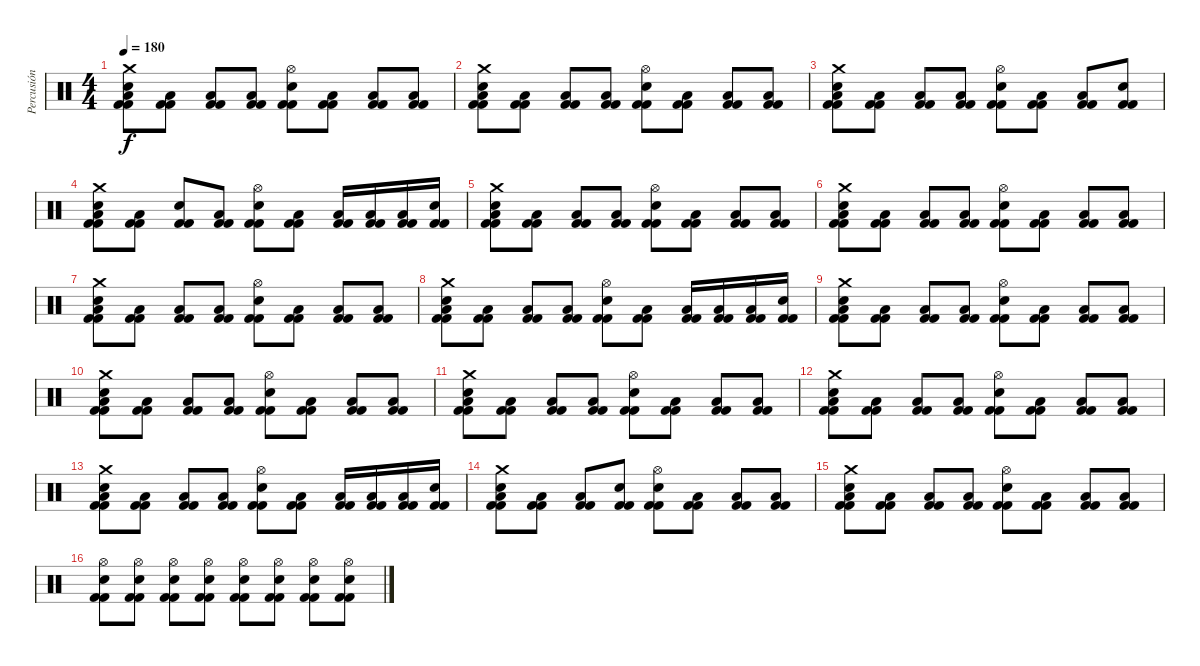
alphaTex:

\track ("Percusión" "Percusión") {instrument percussion}
\staff {score}
\articulation defaults
\ts (4 4)
\tempo 180
\clef neutral
\ks c
("Crash medium (hit)" "Kick (hit) 2" "Kick (hit) 2" "Snare (hit) 2" "Low Floor Tom (hit)").8{dy f} ("Kick (hit) 2" "Kick (hit) 2" "Low Floor Tom (hit)").8 ("Kick (hit) 2" "Kick (hit) 2" "Low Floor Tom (hit)").8 ("Kick (hit) 2" "Kick (hit) 2" "Low Floor Tom (hit)").8 ("Hi-Hat (open)" "Kick (hit) 2" "Kick (hit) 2" "Snare (hit) 2").8 ("Kick (hit) 2" "Kick (hit) 2" "Low Floor Tom (hit)").8 ("Kick (hit) 2" "Kick (hit) 2" "Low Floor Tom (hit)").8 ("Kick (hit) 2" "Kick (hit) 2" "Low Floor Tom (hit)").8 |
("Crash medium (hit)" "Kick (hit) 2" "Kick (hit) 2" "Snare (hit) 2" "Low Floor Tom (hit)").8 ("Kick (hit) 2" "Kick (hit) 2" "Low Floor Tom (hit)").8 ("Kick (hit) 2" "Kick (hit) 2" "Low Floor Tom (hit)").8 ("Kick (hit) 2" "Kick (hit) 2" "Low Floor Tom (hit)").8 ("Hi-Hat (open)" "Kick (hit) 2" "Kick (hit) 2" "Snare (hit) 2").8 ("Kick (hit) 2" "Kick (hit) 2" "Low Floor Tom (hit)").8 ("Kick (hit) 2" "Kick (hit) 2" "Low Floor Tom (hit)").8 ("Kick (hit) 2" "Kick (hit) 2" "Low Floor Tom (hit)").8 |
("Crash medium (hit)" "Kick (hit) 2" "Kick (hit) 2" "Snare (hit) 2" "Low Floor Tom (hit)").8 ("Kick (hit) 2" "Kick (hit) 2" "Low Floor Tom (hit)").8 ("Kick (hit) 2" "Kick (hit) 2" "Low Floor Tom (hit)").8 ("Kick (hit) 2" "Kick (hit) 2" "Low Floor Tom (hit)").8 ("Hi-Hat (open)" "Kick (hit) 2" "Kick (hit) 2" "Snare (hit) 2").8 ("Kick (hit) 2" "Kick (hit) 2" "Low Floor Tom (hit)").8 ("Kick (hit) 2" "Kick (hit) 2" "Low Floor Tom (hit)").8 ("Kick (hit) 2" "Kick (hit) 2" "Snare (hit)").8 |
("Crash medium (hit)" "Kick (hit) 2" "Kick (hit) 2" "Snare (hit) 2" "Low Floor Tom (hit)").8 ("Kick (hit) 2" "Kick (hit) 2" "Low Floor Tom (hit)").8 ("Kick (hit) 2" "Kick (hit) 2" "Snare (hit)").8 ("Kick (hit) 2" "Kick (hit) 2" "Low Floor Tom (hit)").8 ("Hi-Hat (open)" "Kick (hit) 2" "Kick (hit) 2" "Snare (hit) 2").8 ("Kick (hit) 2" "Kick (hit) 2" "Low Floor Tom (hit)").8 ("Kick (hit) 2" "Kick (hit) 2" "Low Floor Tom (hit)").16 ("Kick (hit) 2" "Kick (hit) 2" "Low Floor Tom (hit)").16 ("Kick (hit) 2" "Kick (hit) 2" "Low Floor Tom (hit)").16 ("Kick (hit) 2" "Kick (hit) 2" "Snare (hit)").16 |
("Crash medium (hit)" "Kick (hit) 2" "Kick (hit) 2" "Snare (hit) 2" "Low Floor Tom (hit)").8 ("Kick (hit) 2" "Kick (hit) 2" "Low Floor Tom (hit)").8 ("Kick (hit) 2" "Kick (hit) 2" "Low Floor Tom (hit)").8 ("Kick (hit) 2" "Kick (hit) 2" "Low Floor Tom (hit)").8 ("Hi-Hat (open)" "Kick (hit) 2" "Kick (hit) 2" "Snare (hit) 2").8 ("Kick (hit) 2" "Kick (hit) 2" "Low Floor Tom (hit)").8 ("Kick (hit) 2" "Kick (hit) 2" "Low Floor Tom (hit)").8 ("Kick (hit) 2" "Kick (hit) 2" "Low Floor Tom (hit)").8 |
("Crash medium (hit)" "Kick (hit) 2" "Kick (hit) 2" "Snare (hit) 2" "Low Floor Tom (hit)").8 ("Kick (hit) 2" "Kick (hit) 2" "Low Floor Tom (hit)").8 ("Kick (hit) 2" "Kick (hit) 2" "Low Floor Tom (hit)").8 ("Kick (hit) 2" "Kick (hit) 2" "Low Floor Tom (hit)").8 ("Hi-Hat (open)" "Kick (hit) 2" "Kick (hit) 2" "Snare (hit) 2").8 ("Kick (hit) 2" "Kick (hit) 2" "Low Floor Tom (hit)").8 ("Kick (hit) 2" "Kick (hit) 2" "Low Floor Tom (hit)").8 ("Kick (hit) 2" "Kick (hit) 2" "Low Floor Tom (hit)").8 |
("Crash medium (hit)" "Kick (hit) 2" "Kick (hit) 2" "Snare (hit) 2" "Low Floor Tom (hit)").8 ("Kick (hit) 2" "Kick (hit) 2" "Low Floor Tom (hit)").8 ("Kick (hit) 2" "Kick (hit) 2" "Low Floor Tom (hit)").8 ("Kick (hit) 2" "Kick (hit) 2" "Low Floor Tom (hit)").8 ("Hi-Hat (open)" "Kick (hit) 2" "Kick (hit) 2" "Snare (hit) 2").8 ("Kick (hit) 2" "Kick (hit) 2" "Low Floor Tom (hit)").8 ("Kick (hit) 2" "Kick (hit) 2" "Low Floor Tom (hit)").8 ("Kick (hit) 2" "Kick (hit) 2" "Low Floor Tom (hit)").8 |
("Crash medium (hit)" "Kick (hit) 2" "Kick (hit) 2" "Snare (hit) 2" "Low Floor Tom (hit)").8 ("Kick (hit) 2" "Kick (hit) 2" "Low Floor Tom (hit)").8 ("Kick (hit) 2" "Kick (hit) 2" "Low Floor Tom (hit)").8 ("Kick (hit) 2" "Kick (hit) 2" "Low Floor Tom (hit)").8 ("Hi-Hat (open)" "Kick (hit) 2" "Kick (hit) 2" "Snare (hit) 2").8 ("Kick (hit) 2" "Kick (hit) 2" "Low Floor Tom (hit)").8 ("Kick (hit) 2" "Kick (hit) 2" "Low Floor Tom (hit)").16 ("Kick (hit) 2" "Kick (hit) 2" "Low Floor Tom (hit)").16 ("Kick (hit) 2" "Kick (hit) 2" "Low Floor Tom (hit)").16 ("Kick (hit) 2" "Kick (hit) 2" "Snare (hit)").16 |
("Crash medium (hit)" "Kick (hit) 2" "Kick (hit) 2" "Snare (hit) 2" "Low Floor Tom (hit)").8 ("Kick (hit) 2" "Kick (hit) 2" "Low Floor Tom (hit)").8 ("Kick (hit) 2" "Kick (hit) 2" "Low Floor Tom (hit)").8 ("Kick (hit) 2" "Kick (hit) 2" "Low Floor Tom (hit)").8 ("Hi-Hat (open)" "Kick (hit) 2" "Kick (hit) 2" "Snare (hit) 2").8 ("Kick (hit) 2" "Kick (hit) 2" "Low Floor Tom (hit)").8 ("Kick (hit) 2" "Kick (hit) 2" "Low Floor Tom (hit)").8 ("Kick (hit) 2" "Kick (hit) 2" "Low Floor Tom (hit)").8 |
("Crash medium (hit)" "Kick (hit) 2" "Kick (hit) 2" "Snare (hit) 2" "Low Floor Tom (hit)").8 ("Kick (hit) 2" "Kick (hit) 2" "Low Floor Tom (hit)").8 ("Kick (hit) 2" "Kick (hit) 2" "Low Floor Tom (hit)").8 ("Kick (hit) 2" "Kick (hit) 2" "Low Floor Tom (hit)").8 ("Hi-Hat (open)" "Kick (hit) 2" "Kick (hit) 2" "Snare (hit) 2").8 ("Kick (hit) 2" "Kick (hit) 2" "Low Floor Tom (hit)").8 ("Kick (hit) 2" "Kick (hit) 2" "Low Floor Tom (hit)").8 ("Kick (hit) 2" "Kick (hit) 2" "Low Floor Tom (hit)").8 |
("Crash medium (hit)" "Kick (hit) 2" "Kick (hit) 2" "Snare (hit) 2" "Low Floor Tom (hit)").8 ("Kick (hit) 2" "Kick (hit) 2" "Low Floor Tom (hit)").8 ("Kick (hit) 2" "Kick (hit) 2" "Low Floor Tom (hit)").8 ("Kick (hit) 2" "Kick (hit) 2" "Low Floor Tom (hit)").8 ("Hi-Hat (open)" "Kick (hit) 2" "Kick (hit) 2" "Snare (hit) 2").8 ("Kick (hit) 2" "Kick (hit) 2" "Low Floor Tom (hit)").8 ("Kick (hit) 2" "Kick (hit) 2" "Low Floor Tom (hit)").8 ("Kick (hit) 2" "Kick (hit) 2" "Low Floor Tom (hit)").8 |
("Crash medium (hit)" "Kick (hit) 2" "Kick (hit) 2" "Snare (hit) 2" "Low Floor Tom (hit)").8 ("Kick (hit) 2" "Kick (hit) 2" "Low Floor Tom (hit)").8 ("Kick (hit) 2" "Kick (hit) 2" "Low Floor Tom (hit)").8 ("Kick (hit) 2" "Kick (hit) 2" "Low Floor Tom (hit)").8 ("Hi-Hat (open)" "Kick (hit) 2" "Kick (hit) 2" "Snare (hit) 2").8 ("Kick (hit) 2" "Kick (hit) 2" "Low Floor Tom (hit)").8 ("Kick (hit) 2" "Kick (hit) 2" "Low Floor Tom (hit)").8 ("Kick (hit) 2" "Kick (hit) 2" "Low Floor Tom (hit)").8 |
("Crash medium (hit)" "Kick (hit) 2" "Kick (hit) 2" "Snare (hit) 2" "Low Floor Tom (hit)").8 ("Kick (hit) 2" "Kick (hit) 2" "Low Floor Tom (hit)").8 ("Kick (hit) 2" "Kick (hit) 2" "Low Floor Tom (hit)").8 ("Kick (hit) 2" "Kick (hit) 2" "Low Floor Tom (hit)").8 ("Hi-Hat (open)" "Kick (hit) 2" "Kick (hit) 2" "Snare (hit) 2").8 ("Kick (hit) 2" "Kick (hit) 2" "Low Floor Tom (hit)").8 ("Kick (hit) 2" "Kick (hit) 2" "Low Floor Tom (hit)").16 ("Kick (hit) 2" "Kick (hit) 2" "Low Floor Tom (hit)").16 ("Kick (hit) 2" "Kick (hit) 2" "Low Floor Tom (hit)").16 ("Kick (hit) 2" "Kick (hit) 2" "Snare (hit)").16 |
("Crash medium (hit)" "Kick (hit) 2" "Kick (hit) 2" "Snare (hit) 2" "Low Floor Tom (hit)").8 ("Kick (hit) 2" "Kick (hit) 2" "Low Floor Tom (hit)").8 ("Kick (hit) 2" "Kick (hit) 2" "Low Floor Tom (hit)").8 ("Kick (hit) 2" "Kick (hit) 2" "Snare (hit)").8 ("Hi-Hat (open)" "Kick (hit) 2" "Kick (hit) 2" "Snare (hit) 2").8 ("Kick (hit) 2" "Kick (hit) 2" "Low Floor Tom (hit)").8 ("Kick (hit) 2" "Kick (hit) 2" "Low Floor Tom (hit)").8 ("Kick (hit) 2" "Kick (hit) 2" "Low Floor Tom (hit)").8 |
("Crash medium (hit)" "Kick (hit) 2" "Kick (hit) 2" "Snare (hit) 2" "Low Floor Tom (hit)").8 ("Kick (hit) 2" "Kick (hit) 2" "Low Floor Tom (hit)").8 ("Kick (hit) 2" "Kick (hit) 2" "Low Floor Tom (hit)").8 ("Kick (hit) 2" "Kick (hit) 2" "Low Floor Tom (hit)").8 ("Hi-Hat (open)" "Kick (hit) 2" "Kick (hit) 2" "Snare (hit) 2").8 ("Kick (hit) 2" "Kick (hit) 2" "Low Floor Tom (hit)").8 ("Kick (hit) 2" "Kick (hit) 2" "Low Floor Tom (hit)").8 ("Kick (hit) 2" "Kick (hit) 2" "Low Floor Tom (hit)").8 |
("Hi-Hat (open)" "Kick (hit) 2" "Kick (hit) 2" "Snare (hit) 2").8 ("Hi-Hat (open)" "Kick (hit) 2" "Kick (hit) 2" "Snare (hit) 2").8 ("Hi-Hat (open)" "Kick (hit) 2" "Kick (hit) 2" "Snare (hit) 2").8 ("Hi-Hat (open)" "Kick (hit) 2" "Kick (hit) 2" "Snare (hit) 2").8 ("Hi-Hat (open)" "Kick (hit) 2" "Kick (hit) 2" "Snare (hit) 2").8 ("Hi-Hat (open)" "Kick (hit) 2" "Kick (hit) 2" "Snare (hit) 2").8 ("Hi-Hat (open)" "Kick (hit) 2" "Kick (hit) 2" "Snare (hit) 2").8 ("Hi-Hat (open)" "Kick (hit) 2" "Kick (hit) 2" "Snare (hit) 2").8
